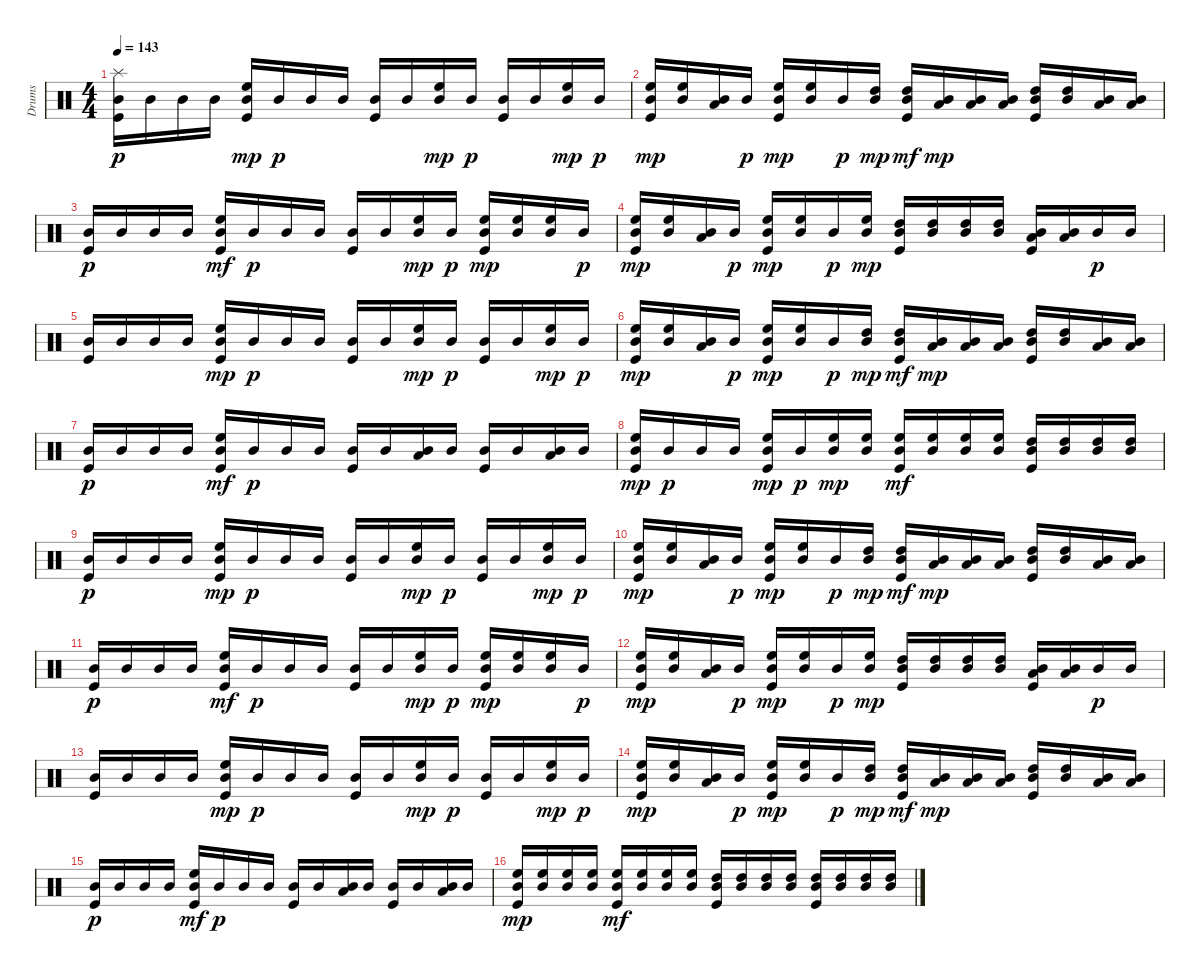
\track ("Drums" "Drums") {instrument percussion}
\staff {score}
\articulation defaults
\ts (4 4)
\tempo 143
\clef neutral
\ks c
("Kick (hit)" "Mid Tom (hit)" "Splash (hit)").16{dy p} "Mid Tom (hit)".16 "Mid Tom (hit)".16 "Mid Tom (hit)".16 ("Kick (hit)" "Mid Tom (hit)" "High Floor Tom (hit)").16{dy mp} "Mid Tom (hit)".16{dy p} "Mid Tom (hit)".16 "Mid Tom (hit)".16 ("Kick (hit)" "Mid Tom (hit)").16 "Mid Tom (hit)".16 ("Mid Tom (hit)" "High Floor Tom (hit)").16{dy mp} "Mid Tom (hit)".16{dy p} ("Kick (hit)" "Mid Tom (hit)").16 "Mid Tom (hit)".16 ("Mid Tom (hit)" "High Floor Tom (hit)").16{dy mp} "Mid Tom (hit)".16{dy p} |
("Kick (hit)" "Mid Tom (hit)" "High Floor Tom (hit)").16{dy mp} ("Mid Tom (hit)" "High Floor Tom (hit)").16 ("Mid Tom (hit)" "Low Tom (hit)").16 "Mid Tom (hit)".16{dy p} ("Kick (hit)" "Mid Tom (hit)" "High Floor Tom (hit)").16{dy mp} ("Mid Tom (hit)" "High Floor Tom (hit)").16 "Mid Tom (hit)".16{dy p} ("Mid Tom (hit)" "High Tom (hit)").16{dy mp} ("Kick (hit)" "Mid Tom (hit)" "High Tom (hit)").16{dy mf} ("Mid Tom (hit)" "Low Tom (hit)").16{dy mp} ("Mid Tom (hit)" "Low Tom (hit)").16 ("Mid Tom (hit)" "Low Tom (hit)").16 ("Kick (hit)" "Mid Tom (hit)" "High Tom (hit)").16 ("Mid Tom (hit)" "High Tom (hit)").16 ("Mid Tom (hit)" "Low Tom (hit)").16 ("Mid Tom (hit)" "Low Tom (hit)").16 |
("Kick (hit)" "Mid Tom (hit)").16{dy p} "Mid Tom (hit)".16 "Mid Tom (hit)".16 "Mid Tom (hit)".16 ("Kick (hit)" "Mid Tom (hit)" "High Floor Tom (hit)").16{dy mf} "Mid Tom (hit)".16{dy p} "Mid Tom (hit)".16 "Mid Tom (hit)".16 ("Kick (hit)" "Mid Tom (hit)").16 "Mid Tom (hit)".16 ("Mid Tom (hit)" "High Floor Tom (hit)").16{dy mp} "Mid Tom (hit)".16{dy p} ("Kick (hit)" "Mid Tom (hit)" "High Floor Tom (hit)").16{dy mp} ("Mid Tom (hit)" "High Floor Tom (hit)").16 ("Mid Tom (hit)" "High Floor Tom (hit)").16 "Mid Tom (hit)".16{dy p} |
("Kick (hit)" "Mid Tom (hit)" "High Floor Tom (hit)").16{dy mp} ("Mid Tom (hit)" "High Floor Tom (hit)").16 ("Mid Tom (hit)" "Low Tom (hit)").16 "Mid Tom (hit)".16{dy p} ("Kick (hit)" "Mid Tom (hit)" "High Floor Tom (hit)").16{dy mp} ("Mid Tom (hit)" "High Floor Tom (hit)").16 "Mid Tom (hit)".16{dy p} ("Mid Tom (hit)" "High Floor Tom (hit)").16{dy mp} ("Kick (hit)" "Mid Tom (hit)" "High Tom (hit)").16 ("Mid Tom (hit)" "High Tom (hit)").16 ("Mid Tom (hit)" "High Tom (hit)").16 ("Mid Tom (hit)" "High Tom (hit)").16 ("Kick (hit)" "Mid Tom (hit)" "Low Tom (hit)").16 ("Mid Tom (hit)" "Low Tom (hit)").16 "Mid Tom (hit)".16{dy p} "Mid Tom (hit)".16 |
("Kick (hit)" "Mid Tom (hit)").16 "Mid Tom (hit)".16 "Mid Tom (hit)".16 "Mid Tom (hit)".16 ("Kick (hit)" "Mid Tom (hit)" "High Floor Tom (hit)").16{dy mp} "Mid Tom (hit)".16{dy p} "Mid Tom (hit)".16 "Mid Tom (hit)".16 ("Kick (hit)" "Mid Tom (hit)").16 "Mid Tom (hit)".16 ("Mid Tom (hit)" "High Floor Tom (hit)").16{dy mp} "Mid Tom (hit)".16{dy p} ("Kick (hit)" "Mid Tom (hit)").16 "Mid Tom (hit)".16 ("Mid Tom (hit)" "High Floor Tom (hit)").16{dy mp} "Mid Tom (hit)".16{dy p} |
("Kick (hit)" "Mid Tom (hit)" "High Floor Tom (hit)").16{dy mp} ("Mid Tom (hit)" "High Floor Tom (hit)").16 ("Mid Tom (hit)" "Low Tom (hit)").16 "Mid Tom (hit)".16{dy p} ("Kick (hit)" "Mid Tom (hit)" "High Floor Tom (hit)").16{dy mp} ("Mid Tom (hit)" "High Floor Tom (hit)").16 "Mid Tom (hit)".16{dy p} ("Mid Tom (hit)" "High Tom (hit)").16{dy mp} ("Kick (hit)" "Mid Tom (hit)" "High Tom (hit)").16{dy mf} ("Mid Tom (hit)" "Low Tom (hit)").16{dy mp} ("Mid Tom (hit)" "Low Tom (hit)").16 ("Mid Tom (hit)" "Low Tom (hit)").16 ("Kick (hit)" "Mid Tom (hit)" "High Tom (hit)").16 ("Mid Tom (hit)" "High Tom (hit)").16 ("Mid Tom (hit)" "Low Tom (hit)").16 ("Mid Tom (hit)" "Low Tom (hit)").16 |
("Kick (hit)" "Mid Tom (hit)").16{dy p} "Mid Tom (hit)".16 "Mid Tom (hit)".16 "Mid Tom (hit)".16 ("Kick (hit)" "Mid Tom (hit)" "High Floor Tom (hit)").16{dy mf} "Mid Tom (hit)".16{dy p} "Mid Tom (hit)".16 "Mid Tom (hit)".16 ("Kick (hit)" "Mid Tom (hit)").16 "Mid Tom (hit)".16 ("Mid Tom (hit)" "Low Tom (hit)").16 "Mid Tom (hit)".16 ("Kick (hit)" "Mid Tom (hit)").16 "Mid Tom (hit)".16 ("Mid Tom (hit)" "Low Tom (hit)").16 "Mid Tom (hit)".16 |
("Kick (hit)" "Mid Tom (hit)" "High Floor Tom (hit)").16{dy mp} "Mid Tom (hit)".16{dy p} "Mid Tom (hit)".16 "Mid Tom (hit)".16 ("Kick (hit)" "Mid Tom (hit)" "High Floor Tom (hit)").16{dy mp} "Mid Tom (hit)".16{dy p} ("Mid Tom (hit)" "High Floor Tom (hit)").16{dy mp} ("Mid Tom (hit)" "High Floor Tom (hit)").16 ("Kick (hit)" "Mid Tom (hit)" "High Floor Tom (hit)").16{dy mf} ("Mid Tom (hit)" "High Floor Tom (hit)").16 ("Mid Tom (hit)" "High Floor Tom (hit)").16 ("Mid Tom (hit)" "High Floor Tom (hit)").16 ("Kick (hit)" "Mid Tom (hit)" "High Tom (hit)").16 ("Mid Tom (hit)" "High Tom (hit)").16 ("Mid Tom (hit)" "High Tom (hit)").16 ("Mid Tom (hit)" "High Tom (hit)").16 |
("Kick (hit)" "Mid Tom (hit)").16{dy p} "Mid Tom (hit)".16 "Mid Tom (hit)".16 "Mid Tom (hit)".16 ("Kick (hit)" "Mid Tom (hit)" "High Floor Tom (hit)").16{dy mp} "Mid Tom (hit)".16{dy p} "Mid Tom (hit)".16 "Mid Tom (hit)".16 ("Kick (hit)" "Mid Tom (hit)").16 "Mid Tom (hit)".16 ("Mid Tom (hit)" "High Floor Tom (hit)").16{dy mp} "Mid Tom (hit)".16{dy p} ("Kick (hit)" "Mid Tom (hit)").16 "Mid Tom (hit)".16 ("Mid Tom (hit)" "High Floor Tom (hit)").16{dy mp} "Mid Tom (hit)".16{dy p} |
("Kick (hit)" "Mid Tom (hit)" "High Floor Tom (hit)").16{dy mp} ("Mid Tom (hit)" "High Floor Tom (hit)").16 ("Mid Tom (hit)" "Low Tom (hit)").16 "Mid Tom (hit)".16{dy p} ("Kick (hit)" "Mid Tom (hit)" "High Floor Tom (hit)").16{dy mp} ("Mid Tom (hit)" "High Floor Tom (hit)").16 "Mid Tom (hit)".16{dy p} ("Mid Tom (hit)" "High Tom (hit)").16{dy mp} ("Kick (hit)" "Mid Tom (hit)" "High Tom (hit)").16{dy mf} ("Mid Tom (hit)" "Low Tom (hit)").16{dy mp} ("Mid Tom (hit)" "Low Tom (hit)").16 ("Mid Tom (hit)" "Low Tom (hit)").16 ("Kick (hit)" "Mid Tom (hit)" "High Tom (hit)").16 ("Mid Tom (hit)" "High Tom (hit)").16 ("Mid Tom (hit)" "Low Tom (hit)").16 ("Mid Tom (hit)" "Low Tom (hit)").16 |
("Kick (hit)" "Mid Tom (hit)").16{dy p} "Mid Tom (hit)".16 "Mid Tom (hit)".16 "Mid Tom (hit)".16 ("Kick (hit)" "Mid Tom (hit)" "High Floor Tom (hit)").16{dy mf} "Mid Tom (hit)".16{dy p} "Mid Tom (hit)".16 "Mid Tom (hit)".16 ("Kick (hit)" "Mid Tom (hit)").16 "Mid Tom (hit)".16 ("Mid Tom (hit)" "High Floor Tom (hit)").16{dy mp} "Mid Tom (hit)".16{dy p} ("Kick (hit)" "Mid Tom (hit)" "High Floor Tom (hit)").16{dy mp} ("Mid Tom (hit)" "High Floor Tom (hit)").16 ("Mid Tom (hit)" "High Floor Tom (hit)").16 "Mid Tom (hit)".16{dy p} |
("Kick (hit)" "Mid Tom (hit)" "High Floor Tom (hit)").16{dy mp} ("Mid Tom (hit)" "High Floor Tom (hit)").16 ("Mid Tom (hit)" "Low Tom (hit)").16 "Mid Tom (hit)".16{dy p} ("Kick (hit)" "Mid Tom (hit)" "High Floor Tom (hit)").16{dy mp} ("Mid Tom (hit)" "High Floor Tom (hit)").16 "Mid Tom (hit)".16{dy p} ("Mid Tom (hit)" "High Floor Tom (hit)").16{dy mp} ("Kick (hit)" "Mid Tom (hit)" "High Tom (hit)").16 ("Mid Tom (hit)" "High Tom (hit)").16 ("Mid Tom (hit)" "High Tom (hit)").16 ("Mid Tom (hit)" "High Tom (hit)").16 ("Kick (hit)" "Mid Tom (hit)" "Low Tom (hit)").16 ("Mid Tom (hit)" "Low Tom (hit)").16 "Mid Tom (hit)".16{dy p} "Mid Tom (hit)".16 |
("Kick (hit)" "Mid Tom (hit)").16 "Mid Tom (hit)".16 "Mid Tom (hit)".16 "Mid Tom (hit)".16 ("Kick (hit)" "Mid Tom (hit)" "High Floor Tom (hit)").16{dy mp} "Mid Tom (hit)".16{dy p} "Mid Tom (hit)".16 "Mid Tom (hit)".16 ("Kick (hit)" "Mid Tom (hit)").16 "Mid Tom (hit)".16 ("Mid Tom (hit)" "High Floor Tom (hit)").16{dy mp} "Mid Tom (hit)".16{dy p} ("Kick (hit)" "Mid Tom (hit)").16 "Mid Tom (hit)".16 ("Mid Tom (hit)" "High Floor Tom (hit)").16{dy mp} "Mid Tom (hit)".16{dy p} |
("Kick (hit)" "Mid Tom (hit)" "High Floor Tom (hit)").16{dy mp} ("Mid Tom (hit)" "High Floor Tom (hit)").16 ("Mid Tom (hit)" "Low Tom (hit)").16 "Mid Tom (hit)".16{dy p} ("Kick (hit)" "Mid Tom (hit)" "High Floor Tom (hit)").16{dy mp} ("Mid Tom (hit)" "High Floor Tom (hit)").16 "Mid Tom (hit)".16{dy p} ("Mid Tom (hit)" "High Tom (hit)").16{dy mp} ("Kick (hit)" "Mid Tom (hit)" "High Tom (hit)").16{dy mf} ("Mid Tom (hit)" "Low Tom (hit)").16{dy mp} ("Mid Tom (hit)" "Low Tom (hit)").16 ("Mid Tom (hit)" "Low Tom (hit)").16 ("Kick (hit)" "Mid Tom (hit)" "High Tom (hit)").16 ("Mid Tom (hit)" "High Tom (hit)").16 ("Mid Tom (hit)" "Low Tom (hit)").16 ("Mid Tom (hit)" "Low Tom (hit)").16 |
("Kick (hit)" "Mid Tom (hit)").16{dy p} "Mid Tom (hit)".16 "Mid Tom (hit)".16 "Mid Tom (hit)".16 ("Kick (hit)" "Mid Tom (hit)" "High Floor Tom (hit)").16{dy mf} "Mid Tom (hit)".16{dy p} "Mid Tom (hit)".16 "Mid Tom (hit)".16 ("Kick (hit)" "Mid Tom (hit)").16 "Mid Tom (hit)".16 ("Mid Tom (hit)" "Low Tom (hit)").16 "Mid Tom (hit)".16 ("Kick (hit)" "Mid Tom (hit)").16 "Mid Tom (hit)".16 ("Mid Tom (hit)" "Low Tom (hit)").16 "Mid Tom (hit)".16 |
("Kick (hit)" "Mid Tom (hit)" "High Floor Tom (hit)").16{dy mp} ("Mid Tom (hit)" "High Floor Tom (hit)").16 ("Mid Tom (hit)" "High Floor Tom (hit)").16 ("Mid Tom (hit)" "High Floor Tom (hit)").16 ("Kick (hit)" "Mid Tom (hit)" "High Floor Tom (hit)").16{dy mf} ("Mid Tom (hit)" "High Floor Tom (hit)").16 ("Mid Tom (hit)" "High Floor Tom (hit)").16 ("Mid Tom (hit)" "High Floor Tom (hit)").16 ("Kick (hit)" "Mid Tom (hit)" "High Tom (hit)").16 ("Mid Tom (hit)" "High Tom (hit)").16 ("Mid Tom (hit)" "High Tom (hit)").16 ("Mid Tom (hit)" "High Tom (hit)").16 ("Kick (hit)" "Mid Tom (hit)" "High Tom (hit)").16 ("Mid Tom (hit)" "High Tom (hit)").16 ("Mid Tom (hit)" "High Tom (hit)").16 ("Mid Tom (hit)" "High Tom (hit)").16
